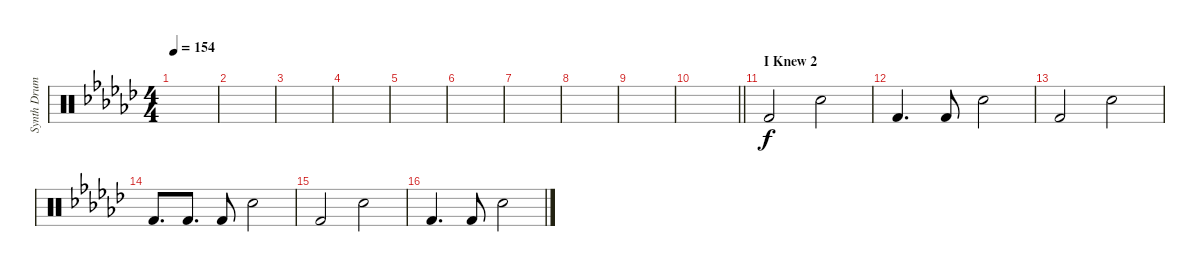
\track ("Synth Drums" "Synth Drum") {instrument percussion}
\staff {score}
\articulation defaults
\ts (4 4)
\tempo 154
\clef neutral
\ks gb
|
|
|
|
|
|
|
|
|
\barLineRight lightlight
|
\section ("" "I Knew 2")
"Kick (hit) 2".2 "Electric Snare (hit)".2 |
"Kick (hit) 2".4{d} "Kick (hit) 2".8 "Electric Snare (hit)".2 |
"Kick (hit) 2".2 "Electric Snare (hit)".2 |
"Kick (hit) 2".8{d} "Kick (hit) 2".8{d} "Kick (hit) 2".8 "Electric Snare (hit)".2 |
"Kick (hit) 2".2 "Electric Snare (hit)".2 |
"Kick (hit) 2".4{d} "Kick (hit) 2".8 "Electric Snare (hit)".2
